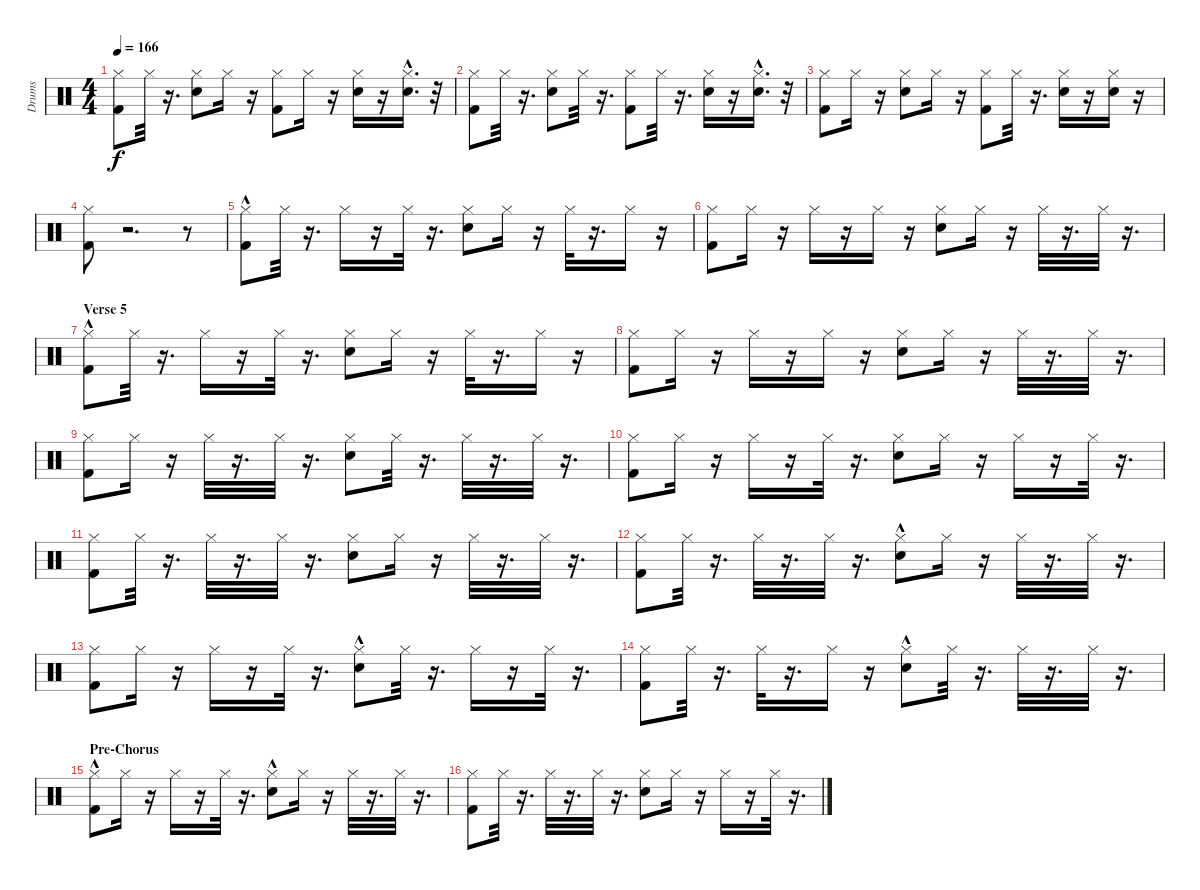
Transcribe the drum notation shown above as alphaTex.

\track ("Drums" "Drums") {instrument percussion}
\staff {score}
\articulation defaults
\ts (4 4)
\tempo 166
\clef neutral
\ks c
("Kick (hit) 2" "Hi-Hat (closed)").8{dy f} "Hi-Hat (closed)".32 r.16{d} ("Hi-Hat (closed)" "Snare (hit) 2").8 "Hi-Hat (closed)".16 r.16 ("Kick (hit) 2" "Hi-Hat (closed)").8 "Hi-Hat (closed)".16 r.16 ("Hi-Hat (closed)" "Snare (hit) 2").16 r.16 ("Hi-Hat (closed)" "Snare (hit) 2"{hac}).16{d} r.32 |
("Kick (hit) 2" "Hi-Hat (closed)").8 "Hi-Hat (closed)".32 r.16{d} ("Hi-Hat (closed)" "Snare (hit) 2").8 "Hi-Hat (closed)".32 r.16{d} ("Kick (hit) 2" "Hi-Hat (closed)").8 "Hi-Hat (closed)".32 r.16{d} ("Hi-Hat (closed)" "Snare (hit) 2").16 r.16 ("Hi-Hat (closed)" "Snare (hit) 2"{hac}).16{d} r.32 |
("Kick (hit) 2" "Hi-Hat (closed)").8 "Hi-Hat (closed)".16 r.16 ("Hi-Hat (closed)" "Snare (hit) 2").8 "Hi-Hat (closed)".16 r.16 ("Kick (hit) 2" "Hi-Hat (closed)").8 "Hi-Hat (closed)".32 r.16{d} ("Hi-Hat (closed)" "Snare (hit) 2").16 r.16 ("Hi-Hat (closed)" "Snare (hit) 2").16 r.16 |
("Kick (hit) 2" "Hi-Hat (closed)").8 r.2{d} r.8 |
("Kick (hit) 2"{hac} "Hi-Hat (closed)").8 "Hi-Hat (closed)".32 r.16{d} "Hi-Hat (closed)".16 r.16 "Hi-Hat (closed)".32 r.16{d} ("Hi-Hat (closed)" "Snare (hit) 2").8 "Hi-Hat (closed)".16 r.16 "Hi-Hat (closed)".32 r.16{d} "Hi-Hat (closed)".16 r.16 |
("Kick (hit) 2" "Hi-Hat (closed)").8 "Hi-Hat (closed)".16 r.16 "Hi-Hat (closed)".16 r.16 "Hi-Hat (closed)".16 r.16 ("Hi-Hat (closed)" "Snare (hit) 2").8 "Hi-Hat (closed)".16 r.16 "Hi-Hat (closed)".32 r.16{d} "Hi-Hat (closed)".32 r.16{d} |
\section ("" "Verse 5")
("Kick (hit) 2"{hac} "Hi-Hat (closed)").8 "Hi-Hat (closed)".32 r.16{d} "Hi-Hat (closed)".16 r.16 "Hi-Hat (closed)".32 r.16{d} ("Hi-Hat (closed)" "Snare (hit) 2").8 "Hi-Hat (closed)".16 r.16 "Hi-Hat (closed)".32 r.16{d} "Hi-Hat (closed)".16 r.16 |
("Kick (hit) 2" "Hi-Hat (closed)").8 "Hi-Hat (closed)".16 r.16 "Hi-Hat (closed)".16 r.16 "Hi-Hat (closed)".16 r.16 ("Hi-Hat (closed)" "Snare (hit) 2").8 "Hi-Hat (closed)".16 r.16 "Hi-Hat (closed)".32 r.16{d} "Hi-Hat (closed)".32 r.16{d} |
("Kick (hit) 2" "Hi-Hat (closed)").8 "Hi-Hat (closed)".16 r.16 "Hi-Hat (closed)".32 r.16{d} "Hi-Hat (closed)".32 r.16{d} ("Hi-Hat (closed)" "Snare (hit) 2").8 "Hi-Hat (closed)".32 r.16{d} "Hi-Hat (closed)".32 r.16{d} "Hi-Hat (closed)".32 r.16{d} |
("Kick (hit) 2" "Hi-Hat (closed)").8 "Hi-Hat (closed)".16 r.16 "Hi-Hat (closed)".16 r.16 "Hi-Hat (closed)".32 r.16{d} ("Hi-Hat (closed)" "Snare (hit) 2").8 "Hi-Hat (closed)".16 r.16 "Hi-Hat (closed)".16 r.16 "Hi-Hat (closed)".32 r.16{d} |
("Kick (hit) 2" "Hi-Hat (closed)").8 "Hi-Hat (closed)".32 r.16{d} "Hi-Hat (closed)".32 r.16{d} "Hi-Hat (closed)".32 r.16{d} ("Hi-Hat (closed)" "Snare (hit) 2").8 "Hi-Hat (closed)".16 r.16 "Hi-Hat (closed)".32 r.16{d} "Hi-Hat (closed)".32 r.16{d} |
("Kick (hit) 2" "Hi-Hat (closed)").8 "Hi-Hat (closed)".32 r.16{d} "Hi-Hat (closed)".32 r.16{d} "Hi-Hat (closed)".32 r.16{d} ("Hi-Hat (closed)" "Snare (hit) 2"{hac}).8 "Hi-Hat (closed)".16 r.16 "Hi-Hat (closed)".32 r.16{d} "Hi-Hat (closed)".32 r.16{d} |
("Kick (hit) 2" "Hi-Hat (closed)").8 "Hi-Hat (closed)".16 r.16 "Hi-Hat (closed)".16 r.16 "Hi-Hat (closed)".32 r.16{d} ("Hi-Hat (closed)" "Snare (hit) 2"{hac}).8 "Hi-Hat (closed)".32 r.16{d} "Hi-Hat (closed)".16 r.16 "Hi-Hat (closed)".32 r.16{d} |
("Kick (hit) 2" "Hi-Hat (closed)").8 "Hi-Hat (closed)".32 r.16{d} "Hi-Hat (closed)".32 r.16{d} "Hi-Hat (closed)".16 r.16 ("Hi-Hat (closed)" "Snare (hit) 2"{hac}).8 "Hi-Hat (closed)".32 r.16{d} "Hi-Hat (closed)".32 r.16{d} "Hi-Hat (closed)".32 r.16{d} |
\section ("" "Pre-Chorus")
("Kick (hit) 2"{hac} "Hi-Hat (closed)").8 "Hi-Hat (closed)".16 r.16 "Hi-Hat (closed)".16 r.16 "Hi-Hat (closed)".32 r.16{d} ("Hi-Hat (closed)" "Snare (hit) 2"{hac}).8 "Hi-Hat (closed)".16 r.16 "Hi-Hat (closed)".32 r.16{d} "Hi-Hat (closed)".32 r.16{d} |
("Kick (hit) 2" "Hi-Hat (closed)").8 "Hi-Hat (closed)".32 r.16{d} "Hi-Hat (closed)".32 r.16{d} "Hi-Hat (closed)".32 r.16{d} ("Hi-Hat (closed)" "Snare (hit) 2").8 "Hi-Hat (closed)".16 r.16 "Hi-Hat (closed)".16 r.16 "Hi-Hat (closed)".32 r.16{d}
